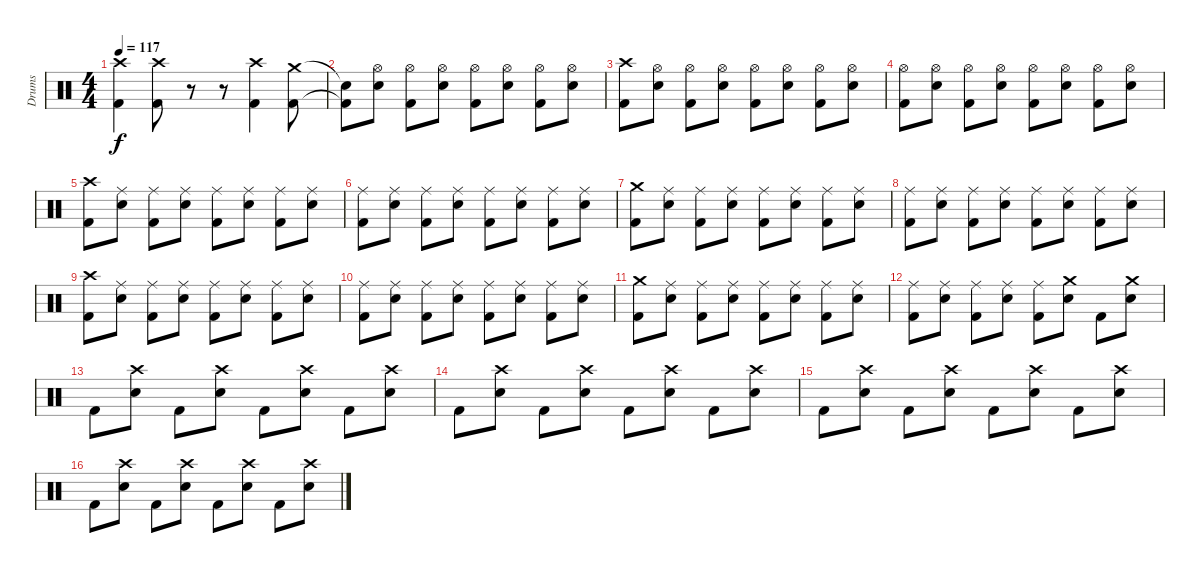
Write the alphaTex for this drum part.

\track ("Drums" "Drums") {instrument percussion}
\staff {score}
\articulation defaults
\ts (4 4)
\tempo 117
\clef neutral
\ks c
("Crash high (hit)" "Kick (hit) 2").4{dy f} ("Crash high (hit)" "Kick (hit) 2").8 r.8 r.8 ("Crash high (hit)" "Kick (hit) 2").4 ("Crash medium (hit)" "Kick (hit) 2").8 |
("Snare (hit)"{t} "Kick (hit) 2"{t}).8 ("Hi-Hat (open)" "Electric Snare (hit)").8 ("Hi-Hat (open)" "Kick (hit) 2").8 ("Hi-Hat (open)" "Electric Snare (hit)").8 ("Hi-Hat (open)" "Kick (hit) 2").8 ("Hi-Hat (open)" "Electric Snare (hit)").8 ("Hi-Hat (open)" "Kick (hit) 2").8 ("Hi-Hat (open)" "Electric Snare (hit)").8 |
("Crash high (hit)" "Kick (hit) 2").8 ("Hi-Hat (open)" "Electric Snare (hit)").8 ("Hi-Hat (open)" "Kick (hit) 2").8 ("Hi-Hat (open)" "Electric Snare (hit)").8 ("Hi-Hat (open)" "Kick (hit) 2").8 ("Hi-Hat (open)" "Electric Snare (hit)").8 ("Hi-Hat (open)" "Kick (hit) 2").8 ("Hi-Hat (open)" "Electric Snare (hit)").8 |
("Hi-Hat (open)" "Kick (hit) 2").8 ("Hi-Hat (open)" "Electric Snare (hit)").8 ("Hi-Hat (open)" "Kick (hit) 2").8 ("Hi-Hat (open)" "Electric Snare (hit)").8 ("Hi-Hat (open)" "Kick (hit) 2").8 ("Hi-Hat (open)" "Electric Snare (hit)").8 ("Hi-Hat (open)" "Kick (hit) 2").8 ("Hi-Hat (open)" "Electric Snare (hit)").8 |
("Crash high (hit)" "Kick (hit) 2").8 ("Ride (middle)" "Electric Snare (hit)").8 ("Ride (middle)" "Kick (hit) 2").8 ("Ride (middle)" "Electric Snare (hit)").8 ("Ride (middle)" "Kick (hit) 2").8 ("Ride (middle)" "Electric Snare (hit)").8 ("Ride (middle)" "Kick (hit) 2").8 ("Ride (middle)" "Electric Snare (hit)").8 |
("Ride (middle)" "Kick (hit) 2").8 ("Ride (middle)" "Electric Snare (hit)").8 ("Ride (middle)" "Kick (hit) 2").8 ("Ride (middle)" "Electric Snare (hit)").8 ("Ride (middle)" "Kick (hit) 2").8 ("Ride (middle)" "Electric Snare (hit)").8 ("Ride (middle)" "Kick (hit) 2").8 ("Ride (middle)" "Electric Snare (hit)").8 |
("Crash medium (hit)" "Kick (hit) 2").8 ("Ride (middle)" "Electric Snare (hit)").8 ("Ride (middle)" "Kick (hit) 2").8 ("Ride (middle)" "Electric Snare (hit)").8 ("Ride (middle)" "Kick (hit) 2").8 ("Ride (middle)" "Electric Snare (hit)").8 ("Ride (middle)" "Kick (hit) 2").8 ("Ride (middle)" "Electric Snare (hit)").8 |
("Ride (middle)" "Kick (hit) 2").8 ("Ride (middle)" "Electric Snare (hit)").8 ("Ride (middle)" "Kick (hit) 2").8 ("Ride (middle)" "Electric Snare (hit)").8 ("Ride (middle)" "Kick (hit) 2").8 ("Ride (middle)" "Electric Snare (hit)").8 ("Ride (middle)" "Kick (hit) 2").8 ("Ride (middle)" "Electric Snare (hit)").8 |
("Crash high (hit)" "Kick (hit) 2").8 ("Ride (middle)" "Electric Snare (hit)").8 ("Ride (middle)" "Kick (hit) 2").8 ("Ride (middle)" "Electric Snare (hit)").8 ("Ride (middle)" "Kick (hit) 2").8 ("Ride (middle)" "Electric Snare (hit)").8 ("Ride (middle)" "Kick (hit) 2").8 ("Ride (middle)" "Electric Snare (hit)").8 |
("Ride (middle)" "Kick (hit) 2").8 ("Ride (middle)" "Electric Snare (hit)").8 ("Ride (middle)" "Kick (hit) 2").8 ("Ride (middle)" "Electric Snare (hit)").8 ("Ride (middle)" "Kick (hit) 2").8 ("Ride (middle)" "Electric Snare (hit)").8 ("Ride (middle)" "Kick (hit) 2").8 ("Ride (middle)" "Electric Snare (hit)").8 |
("Crash medium (hit)" "Kick (hit) 2").8 ("Ride (middle)" "Electric Snare (hit)").8 ("Ride (middle)" "Kick (hit) 2").8 ("Ride (middle)" "Electric Snare (hit)").8 ("Ride (middle)" "Kick (hit) 2").8 ("Ride (middle)" "Electric Snare (hit)").8 ("Ride (middle)" "Kick (hit) 2").8 ("Ride (middle)" "Electric Snare (hit)").8 |
("Ride (middle)" "Kick (hit) 2").8 ("Ride (middle)" "Electric Snare (hit)").8 ("Ride (middle)" "Kick (hit) 2").8 ("Ride (middle)" "Electric Snare (hit)").8 ("Ride (middle)" "Kick (hit) 2").8 ("Crash medium (hit)" "Electric Snare (hit)").8 "Kick (hit) 2".8 ("Crash medium (hit)" "Electric Snare (hit)").8 |
"Kick (hit) 2".8 ("Crash high (hit)" "Electric Snare (hit)").8 "Kick (hit) 2".8 ("Crash high (hit)" "Electric Snare (hit)").8 "Kick (hit) 2".8 ("Crash high (hit)" "Electric Snare (hit)").8 "Kick (hit) 2".8 ("Crash high (hit)" "Electric Snare (hit)").8 |
"Kick (hit) 2".8 ("Crash high (hit)" "Electric Snare (hit)").8 "Kick (hit) 2".8 ("Crash high (hit)" "Electric Snare (hit)").8 "Kick (hit) 2".8 ("Crash high (hit)" "Electric Snare (hit)").8 "Kick (hit) 2".8 ("Crash high (hit)" "Electric Snare (hit)").8 |
"Kick (hit) 2".8 ("Crash high (hit)" "Electric Snare (hit)").8 "Kick (hit) 2".8 ("Crash high (hit)" "Electric Snare (hit)").8 "Kick (hit) 2".8 ("Crash high (hit)" "Electric Snare (hit)").8 "Kick (hit) 2".8 ("Crash high (hit)" "Electric Snare (hit)").8 |
"Kick (hit) 2".8 ("Crash high (hit)" "Electric Snare (hit)").8 "Kick (hit) 2".8 ("Crash high (hit)" "Electric Snare (hit)").8 "Kick (hit) 2".8 ("Crash high (hit)" "Electric Snare (hit)").8 "Kick (hit) 2".8 ("Crash high (hit)" "Electric Snare (hit)").8
